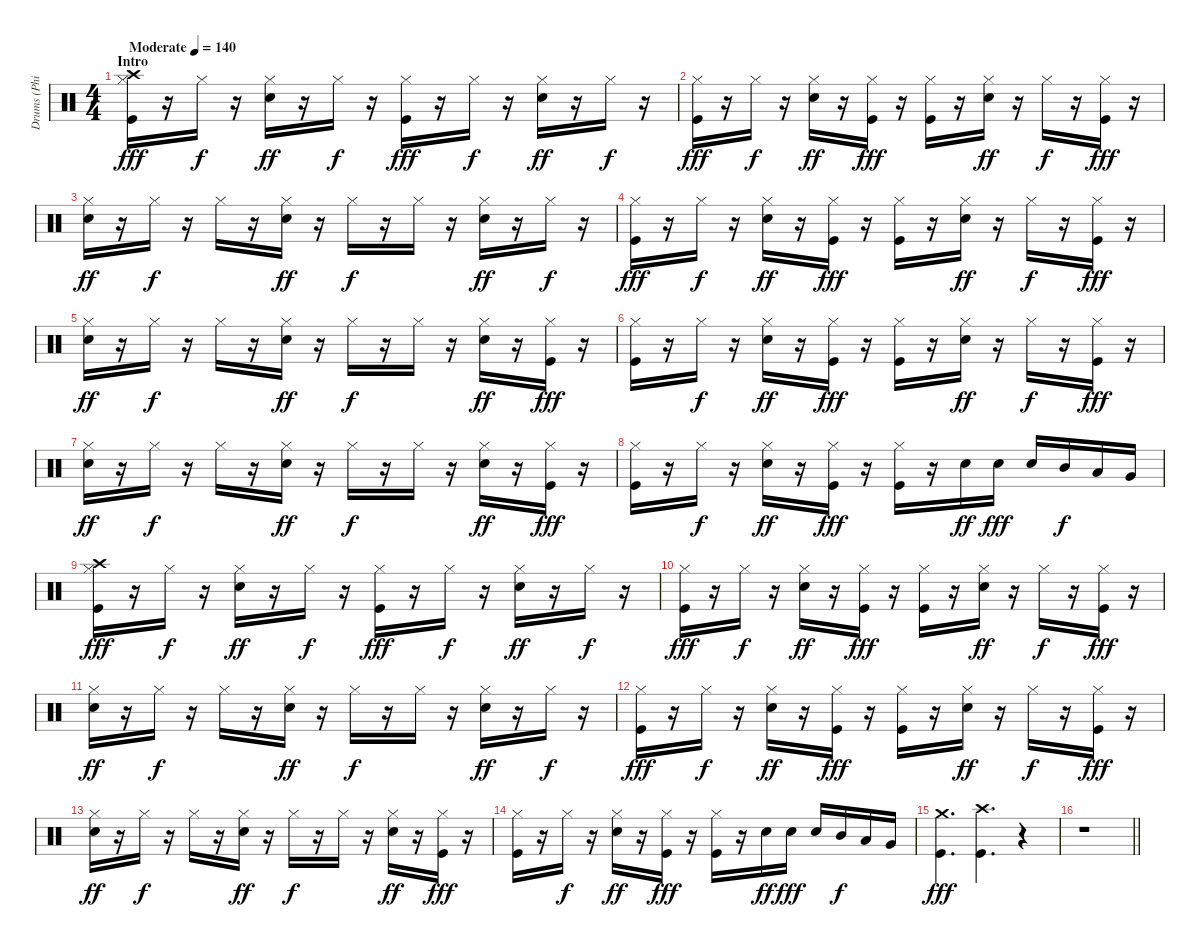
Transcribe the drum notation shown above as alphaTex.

\track ("Drums (Phillip Selway)" "Drums (Phi") {instrument percussion}
\staff {score}
\articulation defaults
\ts (4 4)
\section ("" "Intro")
\tempo (140 "Moderate")
\clef neutral
\ks c
("Crash high (hit)" "Hi-Hat (closed)" "Kick (hit)").16{dy fff} r.16 "Hi-Hat (closed)".16{dy f} r.16 ("Hi-Hat (closed)" "Electric Snare (hit)").16{dy ff} r.16 "Hi-Hat (closed)".16{dy f} r.16 ("Hi-Hat (closed)" "Kick (hit)").16{dy fff} r.16 "Hi-Hat (closed)".16{dy f} r.16 ("Hi-Hat (closed)" "Electric Snare (hit)").16{dy ff} r.16 "Hi-Hat (closed)".16{dy f} r.16 |
("Hi-Hat (closed)" "Kick (hit)").16{dy fff} r.16 "Hi-Hat (closed)".16{dy f} r.16 ("Hi-Hat (closed)" "Electric Snare (hit)").16{dy ff} r.16 ("Hi-Hat (closed)" "Kick (hit)").16{dy fff} r.16 ("Hi-Hat (closed)" "Kick (hit)").16 r.16 ("Hi-Hat (closed)" "Electric Snare (hit)").16{dy ff} r.16 "Hi-Hat (closed)".16{dy f} r.16 ("Hi-Hat (closed)" "Kick (hit)").16{dy fff} r.16 |
("Hi-Hat (closed)" "Electric Snare (hit)").16{dy ff} r.16 "Hi-Hat (closed)".16{dy f} r.16 "Hi-Hat (closed)".16 r.16 ("Hi-Hat (closed)" "Electric Snare (hit)").16{dy ff} r.16 "Hi-Hat (closed)".16{dy f} r.16 "Hi-Hat (closed)".16 r.16 ("Hi-Hat (closed)" "Electric Snare (hit)").16{dy ff} r.16 "Hi-Hat (closed)".16{dy f} r.16 |
("Hi-Hat (closed)" "Kick (hit)").16{dy fff} r.16 "Hi-Hat (closed)".16{dy f} r.16 ("Hi-Hat (closed)" "Electric Snare (hit)").16{dy ff} r.16 ("Hi-Hat (closed)" "Kick (hit)").16{dy fff} r.16 ("Hi-Hat (closed)" "Kick (hit)").16 r.16 ("Hi-Hat (closed)" "Electric Snare (hit)").16{dy ff} r.16 "Hi-Hat (closed)".16{dy f} r.16 ("Hi-Hat (closed)" "Kick (hit)").16{dy fff} r.16 |
("Hi-Hat (closed)" "Electric Snare (hit)").16{dy ff} r.16 "Hi-Hat (closed)".16{dy f} r.16 "Hi-Hat (closed)".16 r.16 ("Hi-Hat (closed)" "Electric Snare (hit)").16{dy ff} r.16 "Hi-Hat (closed)".16{dy f} r.16 "Hi-Hat (closed)".16 r.16 ("Hi-Hat (closed)" "Electric Snare (hit)").16{dy ff} r.16 ("Hi-Hat (closed)" "Kick (hit)").16{dy fff} r.16 |
("Hi-Hat (closed)" "Kick (hit)").16 r.16 "Hi-Hat (closed)".16{dy f} r.16 ("Hi-Hat (closed)" "Electric Snare (hit)").16{dy ff} r.16 ("Hi-Hat (closed)" "Kick (hit)").16{dy fff} r.16 ("Hi-Hat (closed)" "Kick (hit)").16 r.16 ("Hi-Hat (closed)" "Electric Snare (hit)").16{dy ff} r.16 "Hi-Hat (closed)".16{dy f} r.16 ("Hi-Hat (closed)" "Kick (hit)").16{dy fff} r.16 |
("Hi-Hat (closed)" "Electric Snare (hit)").16{dy ff} r.16 "Hi-Hat (closed)".16{dy f} r.16 "Hi-Hat (closed)".16 r.16 ("Hi-Hat (closed)" "Electric Snare (hit)").16{dy ff} r.16 "Hi-Hat (closed)".16{dy f} r.16 "Hi-Hat (closed)".16 r.16 ("Hi-Hat (closed)" "Electric Snare (hit)").16{dy ff} r.16 ("Hi-Hat (closed)" "Kick (hit)").16{dy fff} r.16 |
("Hi-Hat (closed)" "Kick (hit)").16 r.16 "Hi-Hat (closed)".16{dy f} r.16 ("Hi-Hat (closed)" "Electric Snare (hit)").16{dy ff} r.16 ("Hi-Hat (closed)" "Kick (hit)").16{dy fff} r.16 ("Hi-Hat (closed)" "Kick (hit)").16 r.16 "Electric Snare (hit)".16{dy ff} "Electric Snare (hit)".16{dy fff} "Electric Snare (hit)".16 "Mid Tom (hit)".16{dy f} "Low Tom (hit)".16 "Very Low Tom (hit)".16 |
("Crash high (hit)" "Hi-Hat (closed)" "Kick (hit)").16{dy fff} r.16 "Hi-Hat (closed)".16{dy f} r.16 ("Hi-Hat (closed)" "Electric Snare (hit)").16{dy ff} r.16 "Hi-Hat (closed)".16{dy f} r.16 ("Hi-Hat (closed)" "Kick (hit)").16{dy fff} r.16 "Hi-Hat (closed)".16{dy f} r.16 ("Hi-Hat (closed)" "Electric Snare (hit)").16{dy ff} r.16 "Hi-Hat (closed)".16{dy f} r.16 |
("Hi-Hat (closed)" "Kick (hit)").16{dy fff} r.16 "Hi-Hat (closed)".16{dy f} r.16 ("Hi-Hat (closed)" "Electric Snare (hit)").16{dy ff} r.16 ("Hi-Hat (closed)" "Kick (hit)").16{dy fff} r.16 ("Hi-Hat (closed)" "Kick (hit)").16 r.16 ("Hi-Hat (closed)" "Electric Snare (hit)").16{dy ff} r.16 "Hi-Hat (closed)".16{dy f} r.16 ("Hi-Hat (closed)" "Kick (hit)").16{dy fff} r.16 |
("Hi-Hat (closed)" "Electric Snare (hit)").16{dy ff} r.16 "Hi-Hat (closed)".16{dy f} r.16 "Hi-Hat (closed)".16 r.16 ("Hi-Hat (closed)" "Electric Snare (hit)").16{dy ff} r.16 "Hi-Hat (closed)".16{dy f} r.16 "Hi-Hat (closed)".16 r.16 ("Hi-Hat (closed)" "Electric Snare (hit)").16{dy ff} r.16 "Hi-Hat (closed)".16{dy f} r.16 |
("Hi-Hat (closed)" "Kick (hit)").16{dy fff} r.16 "Hi-Hat (closed)".16{dy f} r.16 ("Hi-Hat (closed)" "Electric Snare (hit)").16{dy ff} r.16 ("Hi-Hat (closed)" "Kick (hit)").16{dy fff} r.16 ("Hi-Hat (closed)" "Kick (hit)").16 r.16 ("Hi-Hat (closed)" "Electric Snare (hit)").16{dy ff} r.16 "Hi-Hat (closed)".16{dy f} r.16 ("Hi-Hat (closed)" "Kick (hit)").16{dy fff} r.16 |
("Hi-Hat (closed)" "Electric Snare (hit)").16{dy ff} r.16 "Hi-Hat (closed)".16{dy f} r.16 "Hi-Hat (closed)".16 r.16 ("Hi-Hat (closed)" "Electric Snare (hit)").16{dy ff} r.16 "Hi-Hat (closed)".16{dy f} r.16 "Hi-Hat (closed)".16 r.16 ("Hi-Hat (closed)" "Electric Snare (hit)").16{dy ff} r.16 ("Hi-Hat (closed)" "Kick (hit)").16{dy fff} r.16 |
("Hi-Hat (closed)" "Kick (hit)").16 r.16 "Hi-Hat (closed)".16{dy f} r.16 ("Hi-Hat (closed)" "Electric Snare (hit)").16{dy ff} r.16 ("Hi-Hat (closed)" "Kick (hit)").16{dy fff} r.16 ("Hi-Hat (closed)" "Kick (hit)").16 r.16 "Electric Snare (hit)".16{dy ff} "Electric Snare (hit)".16{dy fff} "Electric Snare (hit)".16 "Mid Tom (hit)".16{dy f} "Low Tom (hit)".16 "Very Low Tom (hit)".16 |
("Crash medium (hit)" "Kick (hit)").4{d dy fff} ("Crash high (hit)" "Kick (hit)").4{d} r.4 |
\barLineRight lightlight
r.1
